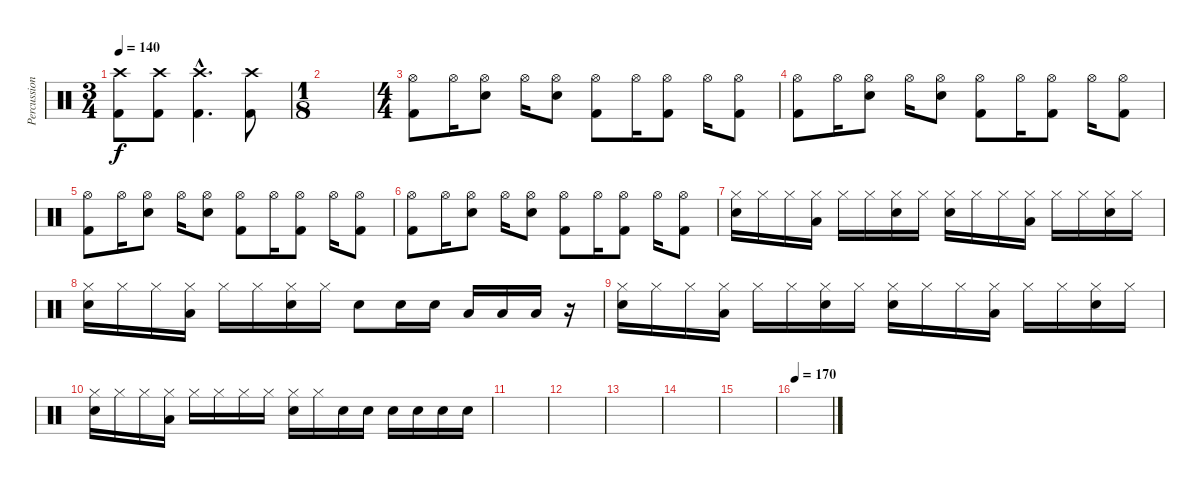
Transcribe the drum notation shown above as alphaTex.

\track ("Percussion" "Percussion") {instrument percussion}
\staff {score}
\articulation defaults
\ts (3 4)
\tempo 140
\clef neutral
\ks c
("Crash high (hit)" "Kick (hit) 2").8{dy f} ("Crash high (hit)" "Kick (hit) 2").8 ("Crash high (hit)"{hac} "Kick (hit) 2"{hac}).4{d} ("Crash high (hit)" "Kick (hit) 2").8 |
\ts (1 8)
|
\ts (4 4)
("Kick (hit) 2" "Hi-Hat (open)").8 "Hi-Hat (open)".16 ("Electric Snare (hit)" "Hi-Hat (open)").8 "Hi-Hat (open)".16 ("Electric Snare (hit)" "Hi-Hat (open)").8 ("Kick (hit) 2" "Hi-Hat (open)").8 "Hi-Hat (open)".16 ("Kick (hit) 2" "Hi-Hat (open)").8 "Hi-Hat (open)".16 ("Kick (hit) 2" "Hi-Hat (open)").8 |
("Kick (hit) 2" "Hi-Hat (open)").8 "Hi-Hat (open)".16 ("Electric Snare (hit)" "Hi-Hat (open)").8 "Hi-Hat (open)".16 ("Electric Snare (hit)" "Hi-Hat (open)").8 ("Kick (hit) 2" "Hi-Hat (open)").8 "Hi-Hat (open)".16 ("Kick (hit) 2" "Hi-Hat (open)").8 "Hi-Hat (open)".16 ("Kick (hit) 2" "Hi-Hat (open)").8 |
("Kick (hit) 2" "Hi-Hat (open)").8 "Hi-Hat (open)".16 ("Electric Snare (hit)" "Hi-Hat (open)").8 "Hi-Hat (open)".16 ("Electric Snare (hit)" "Hi-Hat (open)").8 ("Kick (hit) 2" "Hi-Hat (open)").8 "Hi-Hat (open)".16 ("Kick (hit) 2" "Hi-Hat (open)").8 "Hi-Hat (open)".16 ("Kick (hit) 2" "Hi-Hat (open)").8 |
("Kick (hit) 2" "Hi-Hat (open)").8 "Hi-Hat (open)".16 ("Electric Snare (hit)" "Hi-Hat (open)").8 "Hi-Hat (open)".16 ("Electric Snare (hit)" "Hi-Hat (open)").8 ("Kick (hit) 2" "Hi-Hat (open)").8 "Hi-Hat (open)".16 ("Kick (hit) 2" "Hi-Hat (open)").8 "Hi-Hat (open)".16 ("Kick (hit) 2" "Hi-Hat (open)").8 |
("Electric Snare (hit)" "Hi-Hat (closed)").16 "Hi-Hat (closed)".16 "Hi-Hat (closed)".16 ("Low Tom (hit)" "Hi-Hat (closed)").16 "Hi-Hat (closed)".16 "Hi-Hat (closed)".16 ("Electric Snare (hit)" "Hi-Hat (closed)").16 "Hi-Hat (closed)".16 ("Electric Snare (hit)" "Hi-Hat (closed)").16 "Hi-Hat (closed)".16 "Hi-Hat (closed)".16 ("Low Tom (hit)" "Hi-Hat (closed)").16 "Hi-Hat (closed)".16 "Hi-Hat (closed)".16 ("Electric Snare (hit)" "Hi-Hat (closed)").16 "Hi-Hat (closed)".16 |
("Electric Snare (hit)" "Hi-Hat (closed)").16 "Hi-Hat (closed)".16 "Hi-Hat (closed)".16 ("Low Tom (hit)" "Hi-Hat (closed)").16 "Hi-Hat (closed)".16 "Hi-Hat (closed)".16 ("Electric Snare (hit)" "Hi-Hat (closed)").16 "Hi-Hat (closed)".16 "Electric Snare (hit)".8 "Electric Snare (hit)".16 "Electric Snare (hit)".16 "Low Tom (hit)".16 "Low Tom (hit)".16 "Low Tom (hit)".16 r.16 |
("Electric Snare (hit)" "Hi-Hat (closed)").16 "Hi-Hat (closed)".16 "Hi-Hat (closed)".16 ("Low Tom (hit)" "Hi-Hat (closed)").16 "Hi-Hat (closed)".16 "Hi-Hat (closed)".16 ("Electric Snare (hit)" "Hi-Hat (closed)").16 "Hi-Hat (closed)".16 ("Electric Snare (hit)" "Hi-Hat (closed)").16 "Hi-Hat (closed)".16 "Hi-Hat (closed)".16 ("Low Tom (hit)" "Hi-Hat (closed)").16 "Hi-Hat (closed)".16 "Hi-Hat (closed)".16 ("Electric Snare (hit)" "Hi-Hat (closed)").16 "Hi-Hat (closed)".16 |
("Electric Snare (hit)" "Hi-Hat (closed)").16 "Hi-Hat (closed)".16 "Hi-Hat (closed)".16 ("Low Tom (hit)" "Hi-Hat (closed)").16 "Hi-Hat (closed)".16 "Hi-Hat (closed)".16 "Hi-Hat (closed)".16 "Hi-Hat (closed)".16 ("Electric Snare (hit)" "Hi-Hat (closed)").16 "Hi-Hat (closed)".16 "Electric Snare (hit)".16 "Electric Snare (hit)".16 "Electric Snare (hit)".16 "Electric Snare (hit)".16 "Electric Snare (hit)".16 "Electric Snare (hit)".16 |
|
|
|
|
|
\tempo 170
